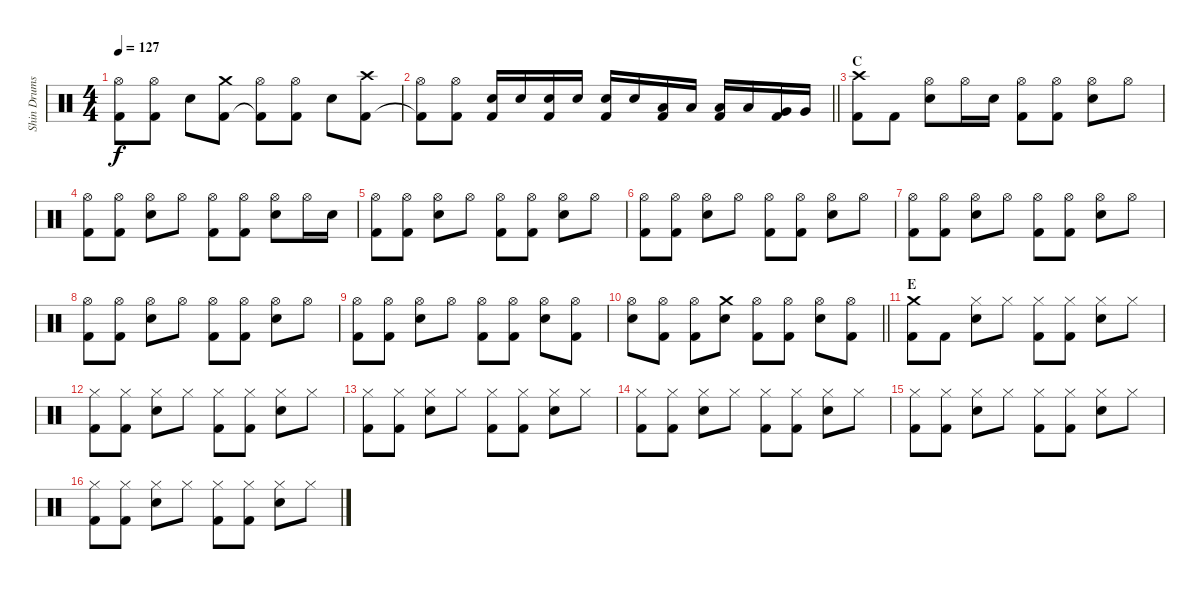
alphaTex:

\track ("Shin Drums" "Shin Drums") {instrument percussion}
\staff {score}
\articulation defaults
\ts (4 4)
\tempo 127
\clef neutral
\ks c
("Hi-Hat (open)" "Kick (hit) 2"{t}).8{dy f} ("Hi-Hat (open)" "Kick (hit) 2").8 "Snare (hit) 2".8 ("Crash medium (hit)" "Kick (hit) 2").8 ("Hi-Hat (open)" "Kick (hit) 2"{t}).8 ("Hi-Hat (open)" "Kick (hit) 2").8 "Snare (hit) 2".8 ("Crash high (hit)" "Kick (hit) 2").8 |
\barLineRight lightlight
("Hi-Hat (open)" "Kick (hit) 2"{t}).8 ("Hi-Hat (open)" "Kick (hit) 2").8 ("Snare (hit) 2" "Kick (hit) 2").16 "Snare (hit) 2".16 ("Snare (hit) 2" "Kick (hit) 2").16 "Snare (hit) 2".16 ("Snare (hit) 2" "Kick (hit) 2").16 "Snare (hit) 2".16 ("Low Tom (hit)" "Kick (hit) 2").16 "Low Tom (hit)".16 ("Low Tom (hit)" "Kick (hit) 2").16 "Low Tom (hit)".16 ("Very Low Tom (hit)" "Kick (hit) 2").16 "Very Low Tom (hit)".16 |
\section ("" "C")
("Crash high (hit)" "Kick (hit) 2").8 "Kick (hit) 2".8 ("Hi-Hat (open)" "Snare (hit) 2").8 "Hi-Hat (open)".16 "Snare (hit) 2".16 ("Hi-Hat (open)" "Kick (hit) 2").8 ("Hi-Hat (open)" "Kick (hit) 2").8 ("Hi-Hat (open)" "Snare (hit) 2").8 "Hi-Hat (open)".8 |
("Hi-Hat (open)" "Kick (hit) 2").8 ("Hi-Hat (open)" "Kick (hit) 2").8 ("Hi-Hat (open)" "Snare (hit) 2").8 "Hi-Hat (open)".8 ("Hi-Hat (open)" "Kick (hit) 2").8 ("Hi-Hat (open)" "Kick (hit) 2").8 ("Hi-Hat (open)" "Snare (hit) 2").8 "Hi-Hat (open)".16 "Snare (hit) 2".16 |
("Hi-Hat (open)" "Kick (hit) 2").8 ("Hi-Hat (open)" "Kick (hit) 2").8 ("Hi-Hat (open)" "Snare (hit) 2").8 "Hi-Hat (open)".8 ("Hi-Hat (open)" "Kick (hit) 2").8 ("Hi-Hat (open)" "Kick (hit) 2").8 ("Hi-Hat (open)" "Snare (hit) 2").8 "Hi-Hat (open)".8 |
("Hi-Hat (open)" "Kick (hit) 2").8 ("Hi-Hat (open)" "Kick (hit) 2").8 ("Hi-Hat (open)" "Snare (hit) 2").8 "Hi-Hat (open)".8 ("Hi-Hat (open)" "Kick (hit) 2").8 ("Hi-Hat (open)" "Kick (hit) 2").8 ("Hi-Hat (open)" "Snare (hit) 2").8 "Hi-Hat (open)".8 |
("Hi-Hat (open)" "Kick (hit) 2").8 ("Hi-Hat (open)" "Kick (hit) 2").8 ("Hi-Hat (open)" "Snare (hit) 2").8 "Hi-Hat (open)".8 ("Hi-Hat (open)" "Kick (hit) 2").8 ("Hi-Hat (open)" "Kick (hit) 2").8 ("Hi-Hat (open)" "Snare (hit) 2").8 "Hi-Hat (open)".8 |
("Hi-Hat (open)" "Kick (hit) 2").8 ("Hi-Hat (open)" "Kick (hit) 2").8 ("Hi-Hat (open)" "Snare (hit) 2").8 "Hi-Hat (open)".8 ("Hi-Hat (open)" "Kick (hit) 2").8 ("Hi-Hat (open)" "Kick (hit) 2").8 ("Hi-Hat (open)" "Snare (hit) 2").8 "Hi-Hat (open)".8 |
("Hi-Hat (open)" "Kick (hit) 2").8 ("Hi-Hat (open)" "Kick (hit) 2").8 ("Hi-Hat (open)" "Snare (hit) 2").8 "Hi-Hat (open)".8 ("Hi-Hat (open)" "Kick (hit) 2").8 ("Hi-Hat (open)" "Kick (hit) 2").8 ("Hi-Hat (open)" "Snare (hit) 2").8 ("Hi-Hat (open)" "Kick (hit) 2").8 |
\barLineRight lightlight
("Hi-Hat (open)" "Snare (hit) 2").8 ("Hi-Hat (open)" "Kick (hit) 2").8 ("Hi-Hat (open)" "Kick (hit) 2").8 ("Crash medium (hit)" "Snare (hit) 2").8 ("Hi-Hat (open)" "Kick (hit) 2").8 ("Hi-Hat (open)" "Kick (hit) 2").8 ("Hi-Hat (open)" "Snare (hit) 2").8 ("Hi-Hat (open)" "Kick (hit) 2").8 |
\section ("" "E")
("Crash medium (hit)" "Kick (hit) 2").8 "Kick (hit) 2".8 ("Hi-Hat (closed)" "Snare (hit) 2").8 "Hi-Hat (closed)".8 ("Hi-Hat (closed)" "Kick (hit) 2").8 ("Hi-Hat (closed)" "Kick (hit) 2").8 ("Hi-Hat (closed)" "Snare (hit) 2").8 "Hi-Hat (closed)".8 |
("Hi-Hat (closed)" "Kick (hit) 2").8 ("Hi-Hat (closed)" "Kick (hit) 2").8 ("Hi-Hat (closed)" "Snare (hit) 2").8 "Hi-Hat (closed)".8 ("Hi-Hat (closed)" "Kick (hit) 2").8 ("Hi-Hat (closed)" "Kick (hit) 2").8 ("Hi-Hat (closed)" "Snare (hit) 2").8 "Hi-Hat (closed)".8 |
("Hi-Hat (closed)" "Kick (hit) 2").8 ("Hi-Hat (closed)" "Kick (hit) 2").8 ("Hi-Hat (closed)" "Snare (hit) 2").8 "Hi-Hat (closed)".8 ("Hi-Hat (closed)" "Kick (hit) 2").8 ("Hi-Hat (closed)" "Kick (hit) 2").8 ("Hi-Hat (closed)" "Snare (hit) 2").8 "Hi-Hat (closed)".8 |
("Hi-Hat (closed)" "Kick (hit) 2").8 ("Hi-Hat (closed)" "Kick (hit) 2").8 ("Hi-Hat (closed)" "Snare (hit) 2").8 "Hi-Hat (closed)".8 ("Hi-Hat (closed)" "Kick (hit) 2").8 ("Hi-Hat (closed)" "Kick (hit) 2").8 ("Hi-Hat (closed)" "Snare (hit) 2").8 "Hi-Hat (closed)".8 |
("Hi-Hat (closed)" "Kick (hit) 2").8 ("Hi-Hat (closed)" "Kick (hit) 2").8 ("Hi-Hat (closed)" "Snare (hit) 2").8 "Hi-Hat (closed)".8 ("Hi-Hat (closed)" "Kick (hit) 2").8 ("Hi-Hat (closed)" "Kick (hit) 2").8 ("Hi-Hat (closed)" "Snare (hit) 2").8 "Hi-Hat (closed)".8 |
("Hi-Hat (closed)" "Kick (hit) 2").8 ("Hi-Hat (closed)" "Kick (hit) 2").8 ("Hi-Hat (closed)" "Snare (hit) 2").8 "Hi-Hat (closed)".8 ("Hi-Hat (closed)" "Kick (hit) 2").8 ("Hi-Hat (closed)" "Kick (hit) 2").8 ("Hi-Hat (closed)" "Snare (hit) 2").8 "Hi-Hat (closed)".8
